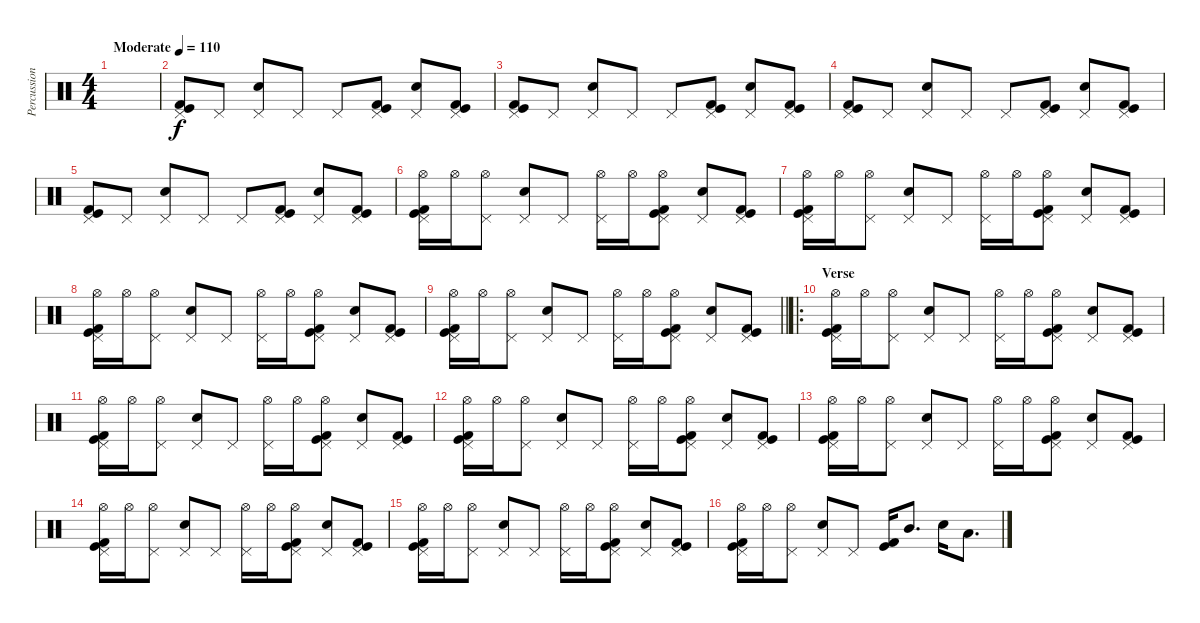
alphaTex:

\track ("Percussion" "Percussion") {instrument percussion}
\staff {score}
\articulation defaults
\ts (4 4)
\tempo (110 "Moderate")
\clef neutral
\ks c
|
("Pedal Hi-Hat (hit)" "Kick (hit)" "Kick (hit) 2").8 "Pedal Hi-Hat (hit)".8 ("Pedal Hi-Hat (hit)" "Electric Snare (hit)").8 "Pedal Hi-Hat (hit)".8 "Pedal Hi-Hat (hit)".8 ("Pedal Hi-Hat (hit)" "Kick (hit)" "Kick (hit) 2").8 ("Pedal Hi-Hat (hit)" "Electric Snare (hit)").8 ("Pedal Hi-Hat (hit)" "Kick (hit)" "Kick (hit) 2").8 |
("Pedal Hi-Hat (hit)" "Kick (hit)" "Kick (hit) 2").8 "Pedal Hi-Hat (hit)".8 ("Pedal Hi-Hat (hit)" "Electric Snare (hit)").8 "Pedal Hi-Hat (hit)".8 "Pedal Hi-Hat (hit)".8 ("Pedal Hi-Hat (hit)" "Kick (hit)" "Kick (hit) 2").8 ("Pedal Hi-Hat (hit)" "Electric Snare (hit)").8 ("Pedal Hi-Hat (hit)" "Kick (hit)" "Kick (hit) 2").8 |
("Pedal Hi-Hat (hit)" "Kick (hit)" "Kick (hit) 2").8 "Pedal Hi-Hat (hit)".8 ("Pedal Hi-Hat (hit)" "Electric Snare (hit)").8 "Pedal Hi-Hat (hit)".8 "Pedal Hi-Hat (hit)".8 ("Pedal Hi-Hat (hit)" "Kick (hit)" "Kick (hit) 2").8 ("Pedal Hi-Hat (hit)" "Electric Snare (hit)").8 ("Pedal Hi-Hat (hit)" "Kick (hit)" "Kick (hit) 2").8 |
("Pedal Hi-Hat (hit)" "Kick (hit)" "Kick (hit) 2").8 "Pedal Hi-Hat (hit)".8 ("Pedal Hi-Hat (hit)" "Electric Snare (hit)").8 "Pedal Hi-Hat (hit)".8 "Pedal Hi-Hat (hit)".8 ("Pedal Hi-Hat (hit)" "Kick (hit)" "Kick (hit) 2").8 ("Pedal Hi-Hat (hit)" "Electric Snare (hit)").8 ("Pedal Hi-Hat (hit)" "Kick (hit)" "Kick (hit) 2").8 |
("Hi-Hat (open)" "Pedal Hi-Hat (hit)" "Kick (hit)" "Kick (hit) 2").16 "Hi-Hat (open)".16 ("Hi-Hat (open)" "Pedal Hi-Hat (hit)").8 ("Pedal Hi-Hat (hit)" "Electric Snare (hit)").8 "Pedal Hi-Hat (hit)".8 ("Hi-Hat (open)" "Pedal Hi-Hat (hit)").16 "Hi-Hat (open)".16 ("Hi-Hat (open)" "Pedal Hi-Hat (hit)" "Kick (hit)" "Kick (hit) 2").8 ("Pedal Hi-Hat (hit)" "Electric Snare (hit)").8 ("Pedal Hi-Hat (hit)" "Kick (hit)" "Kick (hit) 2").8 |
("Hi-Hat (open)" "Pedal Hi-Hat (hit)" "Kick (hit)" "Kick (hit) 2").16 "Hi-Hat (open)".16 ("Hi-Hat (open)" "Pedal Hi-Hat (hit)").8 ("Pedal Hi-Hat (hit)" "Electric Snare (hit)").8 "Pedal Hi-Hat (hit)".8 ("Hi-Hat (open)" "Pedal Hi-Hat (hit)").16 "Hi-Hat (open)".16 ("Hi-Hat (open)" "Pedal Hi-Hat (hit)" "Kick (hit)" "Kick (hit) 2").8 ("Pedal Hi-Hat (hit)" "Electric Snare (hit)").8 ("Pedal Hi-Hat (hit)" "Kick (hit)" "Kick (hit) 2").8 |
("Hi-Hat (open)" "Pedal Hi-Hat (hit)" "Kick (hit)" "Kick (hit) 2").16 "Hi-Hat (open)".16 ("Hi-Hat (open)" "Pedal Hi-Hat (hit)").8 ("Pedal Hi-Hat (hit)" "Electric Snare (hit)").8 "Pedal Hi-Hat (hit)".8 ("Hi-Hat (open)" "Pedal Hi-Hat (hit)").16 "Hi-Hat (open)".16 ("Hi-Hat (open)" "Pedal Hi-Hat (hit)" "Kick (hit)" "Kick (hit) 2").8 ("Pedal Hi-Hat (hit)" "Electric Snare (hit)").8 ("Pedal Hi-Hat (hit)" "Kick (hit)" "Kick (hit) 2").8 |
\barLineRight lightlight
("Hi-Hat (open)" "Pedal Hi-Hat (hit)" "Kick (hit)" "Kick (hit) 2").16 "Hi-Hat (open)".16 ("Hi-Hat (open)" "Pedal Hi-Hat (hit)").8 ("Pedal Hi-Hat (hit)" "Electric Snare (hit)").8 "Pedal Hi-Hat (hit)".8 ("Hi-Hat (open)" "Pedal Hi-Hat (hit)").16 "Hi-Hat (open)".16 ("Hi-Hat (open)" "Pedal Hi-Hat (hit)" "Kick (hit)" "Kick (hit) 2").8 ("Pedal Hi-Hat (hit)" "Electric Snare (hit)").8 ("Pedal Hi-Hat (hit)" "Kick (hit)" "Kick (hit) 2").8 |
\ro
\section ("" "Verse")
("Hi-Hat (open)" "Pedal Hi-Hat (hit)" "Kick (hit)" "Kick (hit) 2").16 "Hi-Hat (open)".16 ("Hi-Hat (open)" "Pedal Hi-Hat (hit)").8 ("Pedal Hi-Hat (hit)" "Electric Snare (hit)").8 "Pedal Hi-Hat (hit)".8 ("Hi-Hat (open)" "Pedal Hi-Hat (hit)").16 "Hi-Hat (open)".16 ("Hi-Hat (open)" "Pedal Hi-Hat (hit)" "Kick (hit)" "Kick (hit) 2").8 ("Pedal Hi-Hat (hit)" "Electric Snare (hit)").8 ("Pedal Hi-Hat (hit)" "Kick (hit)" "Kick (hit) 2").8 |
("Hi-Hat (open)" "Pedal Hi-Hat (hit)" "Kick (hit)" "Kick (hit) 2").16 "Hi-Hat (open)".16 ("Hi-Hat (open)" "Pedal Hi-Hat (hit)").8 ("Pedal Hi-Hat (hit)" "Electric Snare (hit)").8 "Pedal Hi-Hat (hit)".8 ("Hi-Hat (open)" "Pedal Hi-Hat (hit)").16 "Hi-Hat (open)".16 ("Hi-Hat (open)" "Pedal Hi-Hat (hit)" "Kick (hit)" "Kick (hit) 2").8 ("Pedal Hi-Hat (hit)" "Electric Snare (hit)").8 ("Pedal Hi-Hat (hit)" "Kick (hit)" "Kick (hit) 2").8 |
("Hi-Hat (open)" "Pedal Hi-Hat (hit)" "Kick (hit)" "Kick (hit) 2").16 "Hi-Hat (open)".16 ("Hi-Hat (open)" "Pedal Hi-Hat (hit)").8 ("Pedal Hi-Hat (hit)" "Electric Snare (hit)").8 "Pedal Hi-Hat (hit)".8 ("Hi-Hat (open)" "Pedal Hi-Hat (hit)").16 "Hi-Hat (open)".16 ("Hi-Hat (open)" "Pedal Hi-Hat (hit)" "Kick (hit)" "Kick (hit) 2").8 ("Pedal Hi-Hat (hit)" "Electric Snare (hit)").8 ("Pedal Hi-Hat (hit)" "Kick (hit)" "Kick (hit) 2").8 |
("Hi-Hat (open)" "Pedal Hi-Hat (hit)" "Kick (hit)" "Kick (hit) 2").16 "Hi-Hat (open)".16 ("Hi-Hat (open)" "Pedal Hi-Hat (hit)").8 ("Pedal Hi-Hat (hit)" "Electric Snare (hit)").8 "Pedal Hi-Hat (hit)".8 ("Hi-Hat (open)" "Pedal Hi-Hat (hit)").16 "Hi-Hat (open)".16 ("Hi-Hat (open)" "Pedal Hi-Hat (hit)" "Kick (hit)" "Kick (hit) 2").8 ("Pedal Hi-Hat (hit)" "Electric Snare (hit)").8 ("Pedal Hi-Hat (hit)" "Kick (hit)" "Kick (hit) 2").8 |
("Hi-Hat (open)" "Pedal Hi-Hat (hit)" "Kick (hit)" "Kick (hit) 2").16 "Hi-Hat (open)".16 ("Hi-Hat (open)" "Pedal Hi-Hat (hit)").8 ("Pedal Hi-Hat (hit)" "Electric Snare (hit)").8 "Pedal Hi-Hat (hit)".8 ("Hi-Hat (open)" "Pedal Hi-Hat (hit)").16 "Hi-Hat (open)".16 ("Hi-Hat (open)" "Pedal Hi-Hat (hit)" "Kick (hit)" "Kick (hit) 2").8 ("Pedal Hi-Hat (hit)" "Electric Snare (hit)").8 ("Pedal Hi-Hat (hit)" "Kick (hit)" "Kick (hit) 2").8 |
("Hi-Hat (open)" "Pedal Hi-Hat (hit)" "Kick (hit)" "Kick (hit) 2").16 "Hi-Hat (open)".16 ("Hi-Hat (open)" "Pedal Hi-Hat (hit)").8 ("Pedal Hi-Hat (hit)" "Electric Snare (hit)").8 "Pedal Hi-Hat (hit)".8 ("Hi-Hat (open)" "Pedal Hi-Hat (hit)").16 "Hi-Hat (open)".16 ("Hi-Hat (open)" "Pedal Hi-Hat (hit)" "Kick (hit)" "Kick (hit) 2").8 ("Pedal Hi-Hat (hit)" "Electric Snare (hit)").8 ("Pedal Hi-Hat (hit)" "Kick (hit)" "Kick (hit) 2").8 |
("Hi-Hat (open)" "Pedal Hi-Hat (hit)" "Kick (hit)" "Kick (hit) 2").16 "Hi-Hat (open)".16 ("Hi-Hat (open)" "Pedal Hi-Hat (hit)").8 ("Pedal Hi-Hat (hit)" "Electric Snare (hit)").8 "Pedal Hi-Hat (hit)".8 ("Kick (hit)" "Kick (hit) 2").16 "Mid Tom (hit)".8{d} "Electric Snare (hit)".16 "Low Tom (hit)".8{d}
